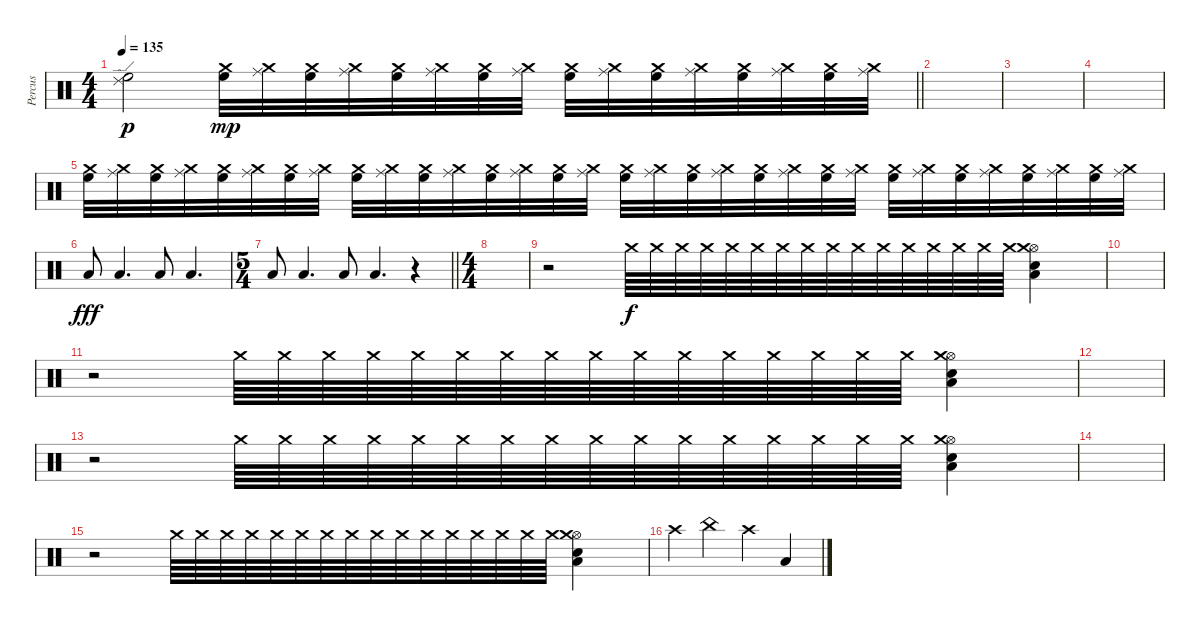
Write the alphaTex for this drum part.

\track ("Percus" "Percus") {instrument percussion}
\staff {score}
\articulation defaults
\ts (4 4)
\tempo 135
\clef neutral
\barLineRight lightlight
\ks c
("Ride (edge) 2" "High Floor Tom (hit)").2{dy p} ("Crash medium (hit)" "High Floor Tom (hit)").32{dy mp} ("Crash medium (hit)" "Ride (middle)").32 ("Crash medium (hit)" "High Floor Tom (hit)").32 ("Crash medium (hit)" "Ride (middle)").32 ("Crash medium (hit)" "High Floor Tom (hit)").32 ("Crash medium (hit)" "Ride (middle)").32 ("Crash medium (hit)" "High Floor Tom (hit)").32 ("Crash medium (hit)" "Ride (middle)").32 ("Crash medium (hit)" "High Floor Tom (hit)").32 ("Crash medium (hit)" "Ride (middle)").32 ("Crash medium (hit)" "High Floor Tom (hit)").32 ("Crash medium (hit)" "Ride (middle)").32 ("Crash medium (hit)" "High Floor Tom (hit)").32 ("Crash medium (hit)" "Ride (middle)").32 ("Crash medium (hit)" "High Floor Tom (hit)").32 ("Crash medium (hit)" "Ride (middle)").32 |
\section ("" "")
|
|
|
("Crash medium (hit)" "High Floor Tom (hit)").32 ("Crash medium (hit)" "Ride (middle)").32 ("Crash medium (hit)" "High Floor Tom (hit)").32 ("Crash medium (hit)" "Ride (middle)").32 ("Crash medium (hit)" "High Floor Tom (hit)").32 ("Crash medium (hit)" "Ride (middle)").32 ("Crash medium (hit)" "High Floor Tom (hit)").32 ("Crash medium (hit)" "Ride (middle)").32 ("Crash medium (hit)" "High Floor Tom (hit)").32 ("Crash medium (hit)" "Ride (middle)").32 ("Crash medium (hit)" "High Floor Tom (hit)").32 ("Crash medium (hit)" "Ride (middle)").32 ("Crash medium (hit)" "High Floor Tom (hit)").32 ("Crash medium (hit)" "Ride (middle)").32 ("Crash medium (hit)" "High Floor Tom (hit)").32 ("Crash medium (hit)" "Ride (middle)").32 ("Crash medium (hit)" "High Floor Tom (hit)").32 ("Crash medium (hit)" "Ride (middle)").32 ("Crash medium (hit)" "High Floor Tom (hit)").32 ("Crash medium (hit)" "Ride (middle)").32 ("Crash medium (hit)" "High Floor Tom (hit)").32 ("Crash medium (hit)" "Ride (middle)").32 ("Crash medium (hit)" "High Floor Tom (hit)").32 ("Crash medium (hit)" "Ride (middle)").32 ("Crash medium (hit)" "High Floor Tom (hit)").32 ("Crash medium (hit)" "Ride (middle)").32 ("Crash medium (hit)" "High Floor Tom (hit)").32 ("Crash medium (hit)" "Ride (middle)").32 ("Crash medium (hit)" "High Floor Tom (hit)").32 ("Crash medium (hit)" "Ride (middle)").32 ("Crash medium (hit)" "High Floor Tom (hit)").32 ("Crash medium (hit)" "Ride (middle)").32 |
"Low Tom (hit)".8{dy fff} "Low Tom (hit)".4{d} "Low Tom (hit)".8 "Low Tom (hit)".4{d} |
\ts (5 4)
\barLineRight lightlight "Low Tom (hit)".8 "Low Tom (hit)".4{d} "Low Tom (hit)".8 "Low Tom (hit)".4{d}
r.4 |
\ts (4 4)
\section ("" "")
|
r.2 "Crash medium (hit)".64{dy f} "Crash medium (hit)".64 "Crash medium (hit)".64 "Crash medium (hit)".64 "Crash medium (hit)".64 "Crash medium (hit)".64 "Crash medium (hit)".64 "Crash medium (hit)".64 "Crash medium (hit)".64 "Crash medium (hit)".64 "Crash medium (hit)".64 "Crash medium (hit)".64 "Crash medium (hit)".64 "Crash medium (hit)".64 "Crash medium (hit)".64 "Crash medium (hit)".64 ("Hi-Hat (open)" "Low Floor Tom (hit)" "Electric Snare (hit)" "Crash medium (hit)").4 |
|
r.2 "Crash medium (hit)".64 "Crash medium (hit)".64 "Crash medium (hit)".64 "Crash medium (hit)".64 "Crash medium (hit)".64 "Crash medium (hit)".64 "Crash medium (hit)".64 "Crash medium (hit)".64 "Crash medium (hit)".64 "Crash medium (hit)".64 "Crash medium (hit)".64 "Crash medium (hit)".64 "Crash medium (hit)".64 "Crash medium (hit)".64 "Crash medium (hit)".64 "Crash medium (hit)".64 ("Hi-Hat (open)" "Low Floor Tom (hit)" "Electric Snare (hit)" "Crash medium (hit)").4 |
|
r.2 "Crash medium (hit)".64 "Crash medium (hit)".64 "Crash medium (hit)".64 "Crash medium (hit)".64 "Crash medium (hit)".64 "Crash medium (hit)".64 "Crash medium (hit)".64 "Crash medium (hit)".64 "Crash medium (hit)".64 "Crash medium (hit)".64 "Crash medium (hit)".64 "Crash medium (hit)".64 "Crash medium (hit)".64 "Crash medium (hit)".64 "Crash medium (hit)".64 "Crash medium (hit)".64 ("Hi-Hat (open)" "Low Floor Tom (hit)" "Electric Snare (hit)" "Crash medium (hit)").4 |
|
r.2 "Crash medium (hit)".64 "Crash medium (hit)".64 "Crash medium (hit)".64 "Crash medium (hit)".64 "Crash medium (hit)".64 "Crash medium (hit)".64 "Crash medium (hit)".64 "Crash medium (hit)".64 "Crash medium (hit)".64 "Crash medium (hit)".64 "Crash medium (hit)".64 "Crash medium (hit)".64 "Crash medium (hit)".64 "Crash medium (hit)".64 "Crash medium (hit)".64 "Crash medium (hit)".64 ("Hi-Hat (open)" "Low Floor Tom (hit)" "Electric Snare (hit)" "Crash medium (hit)").4 |
"Crash high (hit)".4 "China (hit)".4 "Crash high (hit)".4 "Low Floor Tom (hit)".4
